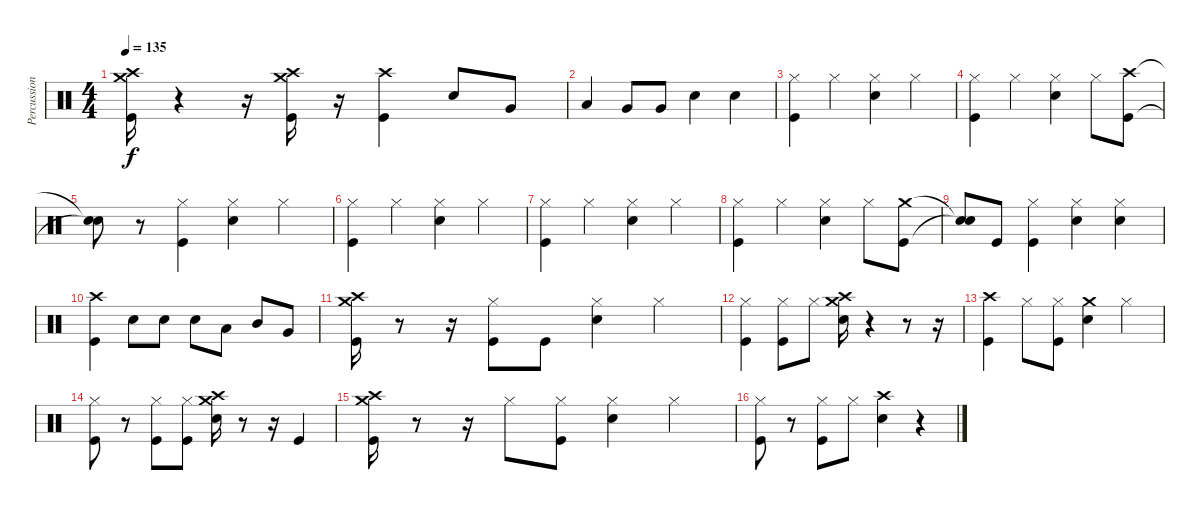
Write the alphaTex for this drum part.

\track ("Percussions" "Percussion") {instrument percussion}
\staff {score}
\articulation defaults
\ts (4 4)
\tempo 135
\clef neutral
\ks c
("Crash medium (hit)" "Crash high (hit)" "Kick (hit)").16{dy f} r.4 r.16 ("Crash high (hit)" "Crash medium (hit)" "Kick (hit)").16 r.16 ("Crash high (hit)" "Kick (hit)").4 "Snare (hit) 2".8 "Very Low Tom (hit)".8 |
"Low Tom (hit)".4 "Very Low Tom (hit)".8 "Very Low Tom (hit)".8 "Snare (hit) 2".4 "Snare (hit) 2".4 |
("Kick (hit)" "Hi-Hat (closed)").4 "Hi-Hat (closed)".4 ("Snare (hit) 2" "Hi-Hat (closed)").4 "Hi-Hat (closed)".4 |
("Kick (hit)" "Hi-Hat (closed)").4 "Hi-Hat (closed)".4 ("Snare (hit) 2" "Hi-Hat (closed)").4 "Hi-Hat (closed)".8 ("Crash high (hit)" "Kick (hit)").8 |
("Snare (hit)"{t} "Snare (hit)"{t}).8 r.8 ("Kick (hit)" "Hi-Hat (closed)").4 ("Snare (hit) 2" "Hi-Hat (closed)").4 "Hi-Hat (closed)".4 |
("Kick (hit)" "Hi-Hat (closed)").4 "Hi-Hat (closed)".4 ("Snare (hit) 2" "Hi-Hat (closed)").4 "Hi-Hat (closed)".4 |
("Kick (hit)" "Hi-Hat (closed)").4 "Hi-Hat (closed)".4 ("Snare (hit) 2" "Hi-Hat (closed)").4 "Hi-Hat (closed)".4 |
("Kick (hit)" "Hi-Hat (closed)").4 "Hi-Hat (closed)".4 ("Snare (hit) 2" "Hi-Hat (closed)").4 "Hi-Hat (closed)".8 ("Kick (hit)" "Crash medium (hit)").8 |
("Snare (hit)"{t} "Snare (hit)"{t}).8 "Kick (hit)".8 ("Kick (hit)" "Hi-Hat (closed)").4 ("Snare (hit) 2" "Hi-Hat (closed)").4 ("Snare (hit) 2" "Hi-Hat (closed)").4 |
("Crash high (hit)" "Kick (hit)").4 "Snare (hit) 2".8 "Snare (hit) 2".8 "Snare (hit) 2".8 "Low Tom (hit)".8 "Mid Tom (hit)".8 "Very Low Tom (hit)".8 |
("Crash medium (hit)" "Kick (hit)" "Crash high (hit)").16 r.8 r.16 ("Hi-Hat (closed)" "Kick (hit)").8 "Kick (hit)".8 ("Hi-Hat (closed)" "Snare (hit) 2").4 "Hi-Hat (closed)".4 |
("Hi-Hat (closed)" "Kick (hit)").4 ("Hi-Hat (closed)" "Kick (hit)").8 "Hi-Hat (closed)".8 ("Crash medium (hit)" "Crash high (hit)" "Snare (hit) 2").16 r.4 r.8 r.16 |
("Crash high (hit)" "Kick (hit)").4 "Hi-Hat (closed)".8 ("Kick (hit)" "Hi-Hat (closed)").8 ("Snare (hit) 2" "Crash medium (hit)").4 "Hi-Hat (closed)".4 |
("Hi-Hat (closed)" "Kick (hit)").8 r.8 ("Kick (hit)" "Hi-Hat (closed)").8 ("Hi-Hat (closed)" "Kick (hit)").8 ("Crash medium (hit)" "Crash high (hit)" "Snare (hit) 2").16 r.8 r.16 "Kick (hit)".4 |
("Crash medium (hit)" "Kick (hit)" "Crash high (hit)").16 r.8 r.16 "Hi-Hat (closed)".8 ("Kick (hit)" "Hi-Hat (closed)").8 ("Hi-Hat (closed)" "Snare (hit) 2").4 "Hi-Hat (closed)".4 |
("Hi-Hat (closed)" "Kick (hit)").8 r.8 ("Hi-Hat (closed)" "Kick (hit)").8 "Hi-Hat (closed)".8 ("Crash high (hit)" "Snare (hit) 2").4 r.4
